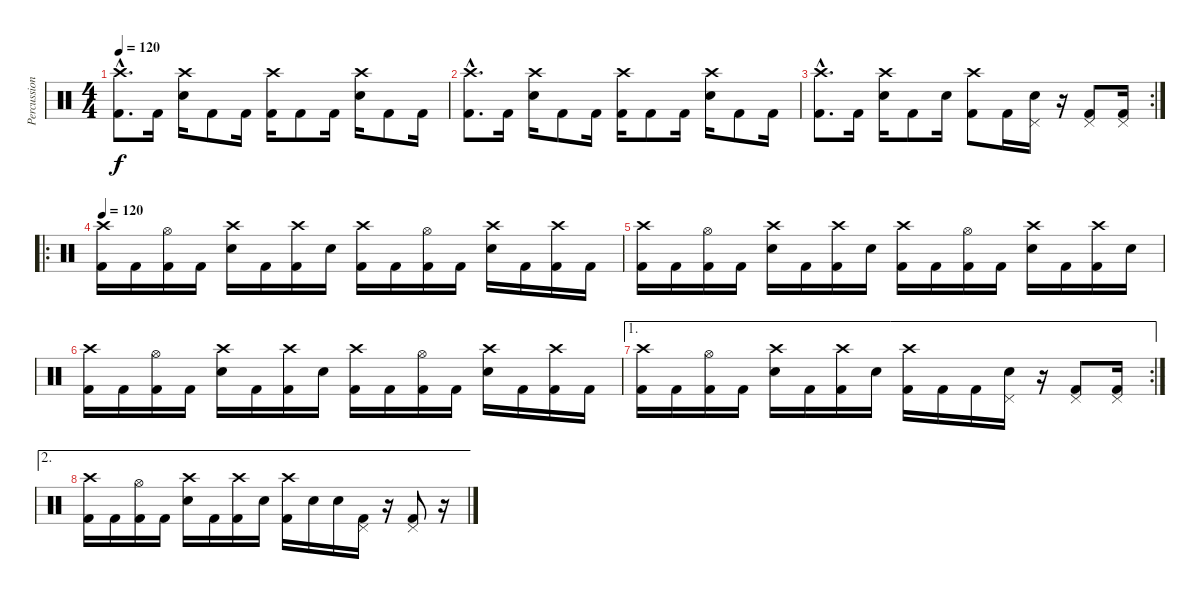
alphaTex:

\track ("Percussions" "Percussion") {instrument percussion}
\staff {score}
\articulation defaults
\ts (4 4)
\tempo 120
\clef neutral
\ks c
("Crash high (hit)"{hac} "Kick (hit) 2"{hac}).8{d dy f} "Kick (hit) 2".16 ("Crash high (hit)" "Electric Snare (hit)").16 "Kick (hit) 2".8 "Kick (hit) 2".16 ("Crash high (hit)" "Kick (hit) 2").16 "Kick (hit) 2".8 "Kick (hit) 2".16 ("Crash high (hit)" "Electric Snare (hit)").16 "Kick (hit) 2".8 "Kick (hit) 2".16 |
("Crash high (hit)"{hac} "Kick (hit) 2"{hac}).8{d} "Kick (hit) 2".16 ("Crash high (hit)" "Electric Snare (hit)").16 "Kick (hit) 2".8 "Kick (hit) 2".16 ("Crash high (hit)" "Kick (hit) 2").16 "Kick (hit) 2".8 "Kick (hit) 2".16 ("Crash high (hit)" "Electric Snare (hit)").16 "Kick (hit) 2".8 "Kick (hit) 2".16 |
\rc 2
("Crash high (hit)"{hac} "Kick (hit) 2"{hac}).8{d} "Kick (hit) 2".16 ("Crash high (hit)" "Electric Snare (hit)").16 "Kick (hit) 2".8 "Electric Snare (hit)".16 ("Crash high (hit)" "Kick (hit) 2").8 "Kick (hit) 2".16 ("Pedal Hi-Hat (hit)" "Electric Snare (hit)").16 r.16 ("Pedal Hi-Hat (hit)" "Kick (hit) 2").8 ("Pedal Hi-Hat (hit)" "Kick (hit) 2").16 |
\ro
\tempo 120
("Crash high (hit)" "Kick (hit) 2").16 "Kick (hit) 2".16 ("Hi-Hat (open)" "Kick (hit) 2").16 "Kick (hit) 2".16 ("Crash high (hit)" "Electric Snare (hit)").16 "Kick (hit) 2".16 ("Crash high (hit)" "Kick (hit) 2").16 "Electric Snare (hit)".16 ("Crash high (hit)" "Kick (hit) 2").16 "Kick (hit) 2".16 ("Hi-Hat (open)" "Kick (hit) 2").16 "Kick (hit) 2".16 ("Crash high (hit)" "Electric Snare (hit)").16 "Kick (hit) 2".16 ("Crash high (hit)" "Kick (hit) 2").16 "Kick (hit) 2".16 |
("Crash high (hit)" "Kick (hit) 2").16 "Kick (hit) 2".16 ("Hi-Hat (open)" "Kick (hit) 2").16 "Kick (hit) 2".16 ("Crash high (hit)" "Electric Snare (hit)").16 "Kick (hit) 2".16 ("Crash high (hit)" "Kick (hit) 2").16 "Electric Snare (hit)".16 ("Crash high (hit)" "Kick (hit) 2").16 "Kick (hit) 2".16 ("Hi-Hat (open)" "Kick (hit) 2").16 "Kick (hit) 2".16 ("Crash high (hit)" "Electric Snare (hit)").16 "Kick (hit) 2".16 ("Crash high (hit)" "Kick (hit) 2").16 "Electric Snare (hit)".16 |
("Crash high (hit)" "Kick (hit) 2").16 "Kick (hit) 2".16 ("Hi-Hat (open)" "Kick (hit) 2").16 "Kick (hit) 2".16 ("Crash high (hit)" "Electric Snare (hit)").16 "Kick (hit) 2".16 ("Crash high (hit)" "Kick (hit) 2").16 "Electric Snare (hit)".16 ("Crash high (hit)" "Kick (hit) 2").16 "Kick (hit) 2".16 ("Hi-Hat (open)" "Kick (hit) 2").16 "Kick (hit) 2".16 ("Crash high (hit)" "Electric Snare (hit)").16 "Kick (hit) 2".16 ("Crash high (hit)" "Kick (hit) 2").16 "Kick (hit) 2".16 |
\ae 1
\rc 2
("Crash high (hit)" "Kick (hit) 2").16 "Kick (hit) 2".16 ("Hi-Hat (open)" "Kick (hit) 2").16 "Kick (hit) 2".16 ("Crash high (hit)" "Electric Snare (hit)").16 "Kick (hit) 2".16 ("Crash high (hit)" "Kick (hit) 2").16 "Electric Snare (hit)".16 ("Crash high (hit)" "Kick (hit) 2").16 "Kick (hit) 2".16 "Kick (hit) 2".16 ("Pedal Hi-Hat (hit)" "Electric Snare (hit)").16 r.16 ("Pedal Hi-Hat (hit)" "Kick (hit) 2").8 ("Pedal Hi-Hat (hit)" "Kick (hit) 2").16 |
\ae 2
("Crash high (hit)" "Kick (hit) 2").16 "Kick (hit) 2".16 ("Hi-Hat (open)" "Kick (hit) 2").16 "Kick (hit) 2".16 ("Crash high (hit)" "Electric Snare (hit)").16 "Kick (hit) 2".16 ("Crash high (hit)" "Kick (hit) 2").16 "Electric Snare (hit)".16 ("Crash high (hit)" "Kick (hit) 2").16 "Electric Snare (hit)".16 "Electric Snare (hit)".16 ("Pedal Hi-Hat (hit)" "Kick (hit) 2").16 r.16 ("Pedal Hi-Hat (hit)" "Kick (hit) 2").8 r.16
